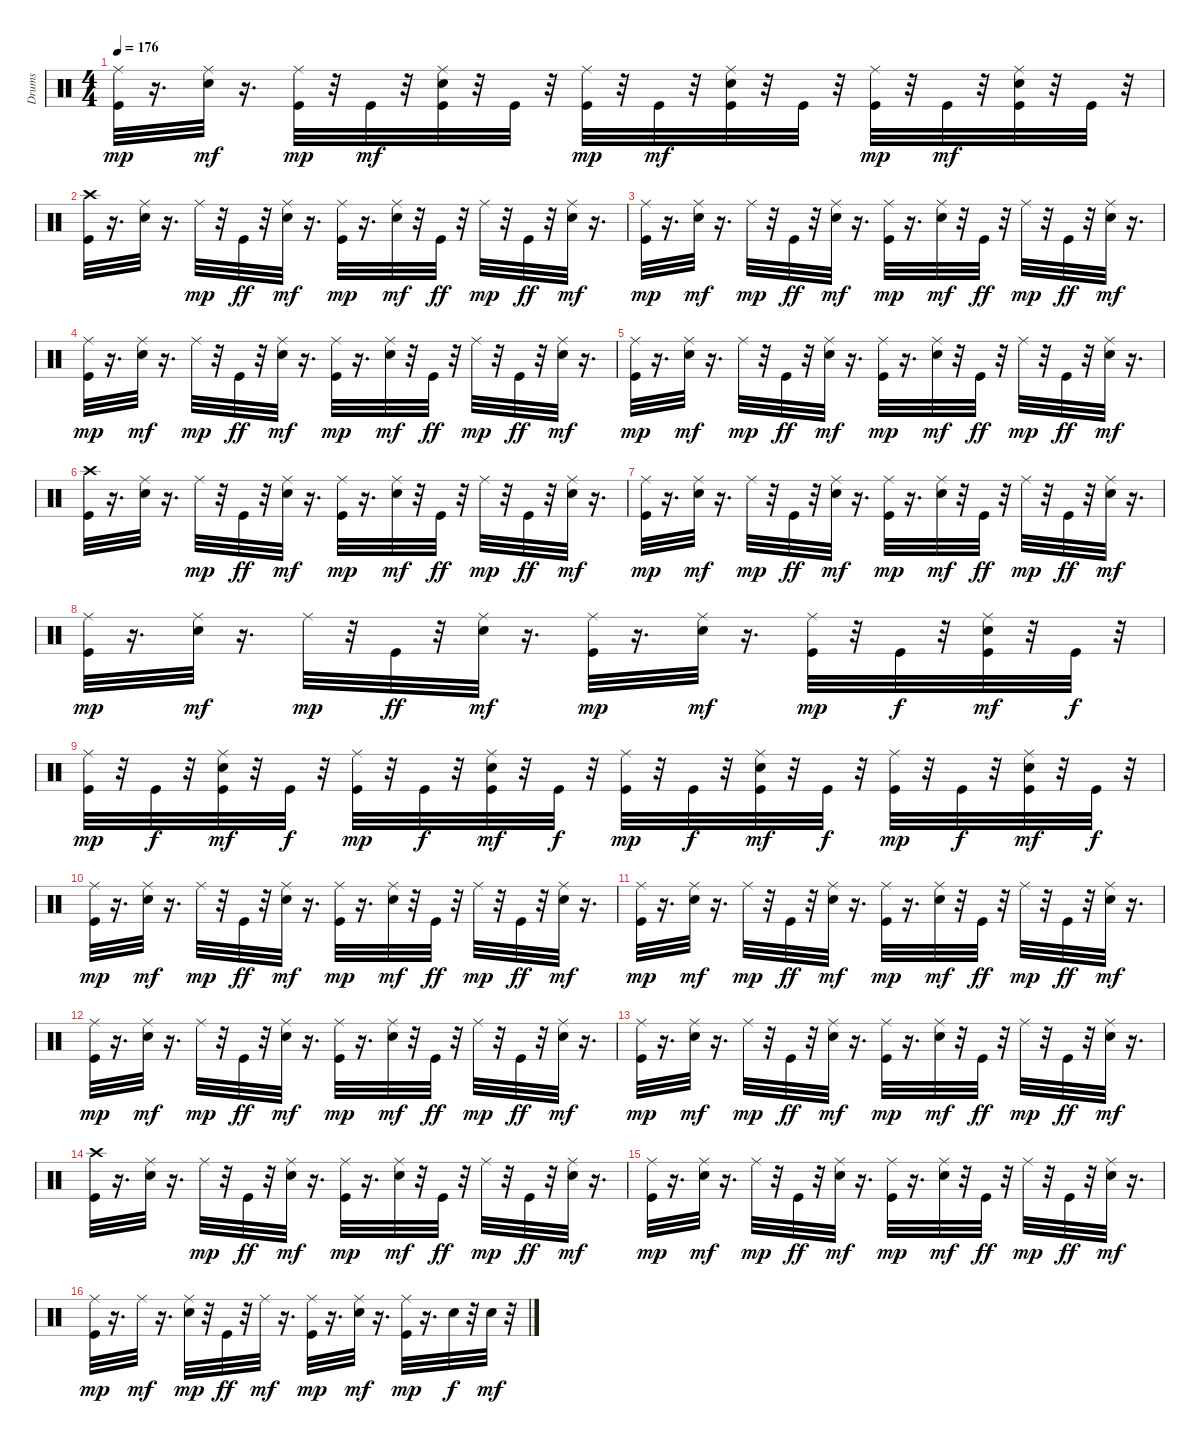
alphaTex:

\track ("Drums" "Drums") {instrument percussion}
\staff {score}
\articulation defaults
\ts (4 4)
\tempo 176
\clef neutral
\ks c
("Kick (hit)" "Ride (middle)").32{dy mp} r.16{d} ("Snare (hit) 2" "Ride (middle)").32{dy mf} r.16{d} ("Kick (hit)" "Ride (middle)").32{dy mp} r.32 "Kick (hit)".32{dy mf} r.32 ("Kick (hit)" "Snare (hit) 2" "Ride (middle)").32 r.32 "Kick (hit)".32 r.32 ("Kick (hit)" "Ride (middle)").32{dy mp} r.32 "Kick (hit)".32{dy mf} r.32 ("Kick (hit)" "Snare (hit) 2" "Ride (middle)").32 r.32 "Kick (hit)".32 r.32 ("Kick (hit)" "Ride (middle)").32{dy mp} r.32 "Kick (hit)".32{dy mf} r.32 ("Kick (hit)" "Snare (hit) 2" "Ride (middle)").32 r.32 "Kick (hit)".32 r.32 |
("Kick (hit)" "Crash high (hit)").32 r.16{d} ("Snare (hit) 2" "Ride (middle)").32 r.16{d} "Ride (middle)".32{dy mp} r.32 "Kick (hit)".32{dy ff} r.32 ("Snare (hit) 2" "Ride (middle)").32{dy mf} r.16{d} ("Kick (hit)" "Ride (middle)").32{dy mp} r.16{d} ("Snare (hit) 2" "Ride (middle)").32{dy mf} r.32 "Kick (hit)".32{dy ff} r.32 "Ride (middle)".32{dy mp} r.32 "Kick (hit)".32{dy ff} r.32 ("Snare (hit) 2" "Ride (middle)").32{dy mf} r.16{d} |
("Kick (hit)" "Ride (middle)").32{dy mp} r.16{d} ("Snare (hit) 2" "Ride (middle)").32{dy mf} r.16{d} "Ride (middle)".32{dy mp} r.32 "Kick (hit)".32{dy ff} r.32 ("Snare (hit) 2" "Ride (middle)").32{dy mf} r.16{d} ("Kick (hit)" "Ride (middle)").32{dy mp} r.16{d} ("Snare (hit) 2" "Ride (middle)").32{dy mf} r.32 "Kick (hit)".32{dy ff} r.32 "Ride (middle)".32{dy mp} r.32 "Kick (hit)".32{dy ff} r.32 ("Snare (hit) 2" "Ride (middle)").32{dy mf} r.16{d} |
("Kick (hit)" "Ride (middle)").32{dy mp} r.16{d} ("Snare (hit) 2" "Ride (middle)").32{dy mf} r.16{d} "Ride (middle)".32{dy mp} r.32 "Kick (hit)".32{dy ff} r.32 ("Snare (hit) 2" "Ride (middle)").32{dy mf} r.16{d} ("Kick (hit)" "Ride (middle)").32{dy mp} r.16{d} ("Snare (hit) 2" "Ride (middle)").32{dy mf} r.32 "Kick (hit)".32{dy ff} r.32 "Ride (middle)".32{dy mp} r.32 "Kick (hit)".32{dy ff} r.32 ("Snare (hit) 2" "Ride (middle)").32{dy mf} r.16{d} |
("Kick (hit)" "Ride (middle)").32{dy mp} r.16{d} ("Snare (hit) 2" "Ride (middle)").32{dy mf} r.16{d} "Ride (middle)".32{dy mp} r.32 "Kick (hit)".32{dy ff} r.32 ("Snare (hit) 2" "Ride (middle)").32{dy mf} r.16{d} ("Kick (hit)" "Ride (middle)").32{dy mp} r.16{d} ("Snare (hit) 2" "Ride (middle)").32{dy mf} r.32 "Kick (hit)".32{dy ff} r.32 "Ride (middle)".32{dy mp} r.32 "Kick (hit)".32{dy ff} r.32 ("Snare (hit) 2" "Ride (middle)").32{dy mf} r.16{d} |
("Kick (hit)" "Crash high (hit)").32 r.16{d} ("Snare (hit) 2" "Ride (middle)").32 r.16{d} "Ride (middle)".32{dy mp} r.32 "Kick (hit)".32{dy ff} r.32 ("Snare (hit) 2" "Ride (middle)").32{dy mf} r.16{d} ("Kick (hit)" "Ride (middle)").32{dy mp} r.16{d} ("Snare (hit) 2" "Ride (middle)").32{dy mf} r.32 "Kick (hit)".32{dy ff} r.32 "Ride (middle)".32{dy mp} r.32 "Kick (hit)".32{dy ff} r.32 ("Snare (hit) 2" "Ride (middle)").32{dy mf} r.16{d} |
("Kick (hit)" "Ride (middle)").32{dy mp} r.16{d} ("Snare (hit) 2" "Ride (middle)").32{dy mf} r.16{d} "Ride (middle)".32{dy mp} r.32 "Kick (hit)".32{dy ff} r.32 ("Snare (hit) 2" "Ride (middle)").32{dy mf} r.16{d} ("Kick (hit)" "Ride (middle)").32{dy mp} r.16{d} ("Snare (hit) 2" "Ride (middle)").32{dy mf} r.32 "Kick (hit)".32{dy ff} r.32 "Ride (middle)".32{dy mp} r.32 "Kick (hit)".32{dy ff} r.32 ("Snare (hit) 2" "Ride (middle)").32{dy mf} r.16{d} |
("Kick (hit)" "Ride (middle)").32{dy mp} r.16{d} ("Snare (hit) 2" "Ride (middle)").32{dy mf} r.16{d} "Ride (middle)".32{dy mp} r.32 "Kick (hit)".32{dy ff} r.32 ("Snare (hit) 2" "Ride (middle)").32{dy mf} r.16{d} ("Kick (hit)" "Ride (middle)").32{dy mp} r.16{d} ("Snare (hit) 2" "Ride (middle)").32{dy mf} r.16{d} ("Kick (hit)" "Ride (middle)").32{dy mp} r.32 "Kick (hit)".32{dy f} r.32 ("Kick (hit)" "Snare (hit) 2" "Ride (middle)").32{dy mf} r.32 "Kick (hit)".32{dy f} r.32 |
("Kick (hit)" "Ride (middle)").32{dy mp} r.32 "Kick (hit)".32{dy f} r.32 ("Kick (hit)" "Snare (hit) 2" "Ride (middle)").32{dy mf} r.32 "Kick (hit)".32{dy f} r.32 ("Kick (hit)" "Ride (middle)").32{dy mp} r.32 "Kick (hit)".32{dy f} r.32 ("Kick (hit)" "Snare (hit) 2" "Ride (middle)").32{dy mf} r.32 "Kick (hit)".32{dy f} r.32 ("Kick (hit)" "Ride (middle)").32{dy mp} r.32 "Kick (hit)".32{dy f} r.32 ("Kick (hit)" "Snare (hit) 2" "Ride (middle)").32{dy mf} r.32 "Kick (hit)".32{dy f} r.32 ("Kick (hit)" "Ride (middle)").32{dy mp} r.32 "Kick (hit)".32{dy f} r.32 ("Kick (hit)" "Snare (hit) 2" "Ride (middle)").32{dy mf} r.32 "Kick (hit)".32{dy f} r.32 |
("Kick (hit)" "Ride (middle)").32{dy mp} r.16{d} ("Snare (hit) 2" "Ride (middle)").32{dy mf} r.16{d} "Ride (middle)".32{dy mp} r.32 "Kick (hit)".32{dy ff} r.32 ("Snare (hit) 2" "Ride (middle)").32{dy mf} r.16{d} ("Kick (hit)" "Ride (middle)").32{dy mp} r.16{d} ("Snare (hit) 2" "Ride (middle)").32{dy mf} r.32 "Kick (hit)".32{dy ff} r.32 "Ride (middle)".32{dy mp} r.32 "Kick (hit)".32{dy ff} r.32 ("Snare (hit) 2" "Ride (middle)").32{dy mf} r.16{d} |
("Kick (hit)" "Ride (middle)").32{dy mp} r.16{d} ("Snare (hit) 2" "Ride (middle)").32{dy mf} r.16{d} "Ride (middle)".32{dy mp} r.32 "Kick (hit)".32{dy ff} r.32 ("Snare (hit) 2" "Ride (middle)").32{dy mf} r.16{d} ("Kick (hit)" "Ride (middle)").32{dy mp} r.16{d} ("Snare (hit) 2" "Ride (middle)").32{dy mf} r.32 "Kick (hit)".32{dy ff} r.32 "Ride (middle)".32{dy mp} r.32 "Kick (hit)".32{dy ff} r.32 ("Snare (hit) 2" "Ride (middle)").32{dy mf} r.16{d} |
("Kick (hit)" "Ride (middle)").32{dy mp} r.16{d} ("Snare (hit) 2" "Ride (middle)").32{dy mf} r.16{d} "Ride (middle)".32{dy mp} r.32 "Kick (hit)".32{dy ff} r.32 ("Snare (hit) 2" "Ride (middle)").32{dy mf} r.16{d} ("Kick (hit)" "Ride (middle)").32{dy mp} r.16{d} ("Snare (hit) 2" "Ride (middle)").32{dy mf} r.32 "Kick (hit)".32{dy ff} r.32 "Ride (middle)".32{dy mp} r.32 "Kick (hit)".32{dy ff} r.32 ("Snare (hit) 2" "Ride (middle)").32{dy mf} r.16{d} |
("Kick (hit)" "Ride (middle)").32{dy mp} r.16{d} ("Snare (hit) 2" "Ride (middle)").32{dy mf} r.16{d} "Ride (middle)".32{dy mp} r.32 "Kick (hit)".32{dy ff} r.32 ("Snare (hit) 2" "Ride (middle)").32{dy mf} r.16{d} ("Kick (hit)" "Ride (middle)").32{dy mp} r.16{d} ("Snare (hit) 2" "Ride (middle)").32{dy mf} r.32 "Kick (hit)".32{dy ff} r.32 "Ride (middle)".32{dy mp} r.32 "Kick (hit)".32{dy ff} r.32 ("Snare (hit) 2" "Ride (middle)").32{dy mf} r.16{d} |
("Kick (hit)" "Crash high (hit)").32 r.16{d} ("Snare (hit) 2" "Ride (middle)").32 r.16{d} "Ride (middle)".32{dy mp} r.32 "Kick (hit)".32{dy ff} r.32 ("Snare (hit) 2" "Ride (middle)").32{dy mf} r.16{d} ("Kick (hit)" "Ride (middle)").32{dy mp} r.16{d} ("Snare (hit) 2" "Ride (middle)").32{dy mf} r.32 "Kick (hit)".32{dy ff} r.32 "Ride (middle)".32{dy mp} r.32 "Kick (hit)".32{dy ff} r.32 ("Snare (hit) 2" "Ride (middle)").32{dy mf} r.16{d} |
("Kick (hit)" "Ride (middle)").32{dy mp} r.16{d} ("Snare (hit) 2" "Ride (middle)").32{dy mf} r.16{d} "Ride (middle)".32{dy mp} r.32 "Kick (hit)".32{dy ff} r.32 ("Snare (hit) 2" "Ride (middle)").32{dy mf} r.16{d} ("Kick (hit)" "Ride (middle)").32{dy mp} r.16{d} ("Snare (hit) 2" "Ride (middle)").32{dy mf} r.32 "Kick (hit)".32{dy ff} r.32 "Ride (middle)".32{dy mp} r.32 "Kick (hit)".32{dy ff} r.32 ("Snare (hit) 2" "Ride (middle)").32{dy mf} r.16{d} |
("Kick (hit)" "Ride (middle)").32{dy mp} r.16{d} "Ride (middle)".32{dy mf} r.16{d} ("Snare (hit) 2" "Ride (middle)").32{dy mp} r.32 "Kick (hit)".32{dy ff} r.32 "Ride (middle)".32{dy mf} r.16{d} ("Kick (hit)" "Ride (middle)").32{dy mp} r.16{d} ("Snare (hit) 2" "Ride (middle)").32{dy mf} r.16{d} ("Kick (hit)" "Ride (middle)").32{dy mp} r.16{d} "Snare (hit) 2".32{dy f} r.32 "Snare (hit) 2".32{dy mf} r.32
